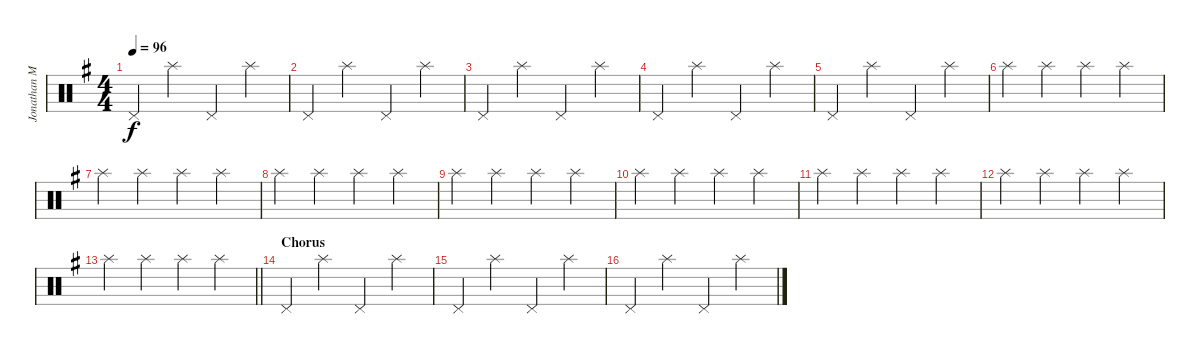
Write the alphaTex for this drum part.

\track ("Jonathan Mover (Drums)" "Jonathan M") {instrument percussion}
\staff {score}
\articulation defaults
\ts (4 4)
\tempo 96
\clef neutral
\ks g "Pedal Hi-Hat (hit)".4{dy f} "Splash (hit)".4 "Pedal Hi-Hat (hit)".4 "Splash (hit)".4
|
"Pedal Hi-Hat (hit)".4 "Splash (hit)".4 "Pedal Hi-Hat (hit)".4 "Splash (hit)".4 |
"Pedal Hi-Hat (hit)".4 "Splash (hit)".4 "Pedal Hi-Hat (hit)".4 "Splash (hit)".4 |
"Pedal Hi-Hat (hit)".4 "Splash (hit)".4 "Pedal Hi-Hat (hit)".4 "Splash (hit)".4 |
"Pedal Hi-Hat (hit)".4 "Splash (hit)".4 "Pedal Hi-Hat (hit)".4 "Splash (hit)".4 |
"Splash (hit)".4 "Splash (hit)".4 "Splash (hit)".4 "Splash (hit)".4 |
"Splash (hit)".4 "Splash (hit)".4 "Splash (hit)".4 "Splash (hit)".4 |
"Splash (hit)".4 "Splash (hit)".4 "Splash (hit)".4 "Splash (hit)".4 |
"Splash (hit)".4 "Splash (hit)".4 "Splash (hit)".4 "Splash (hit)".4 |
"Splash (hit)".4 "Splash (hit)".4 "Splash (hit)".4 "Splash (hit)".4 |
"Splash (hit)".4 "Splash (hit)".4 "Splash (hit)".4 "Splash (hit)".4 |
"Splash (hit)".4 "Splash (hit)".4 "Splash (hit)".4 "Splash (hit)".4 |
\barLineRight lightlight "Splash (hit)".4 "Splash (hit)".4 "Splash (hit)".4 "Splash (hit)".4
|
\section ("" "Chorus")
"Pedal Hi-Hat (hit)".4 "Splash (hit)".4 "Pedal Hi-Hat (hit)".4 "Splash (hit)".4 |
"Pedal Hi-Hat (hit)".4 "Splash (hit)".4 "Pedal Hi-Hat (hit)".4 "Splash (hit)".4 |
"Pedal Hi-Hat (hit)".4 "Splash (hit)".4 "Pedal Hi-Hat (hit)".4 "Splash (hit)".4
